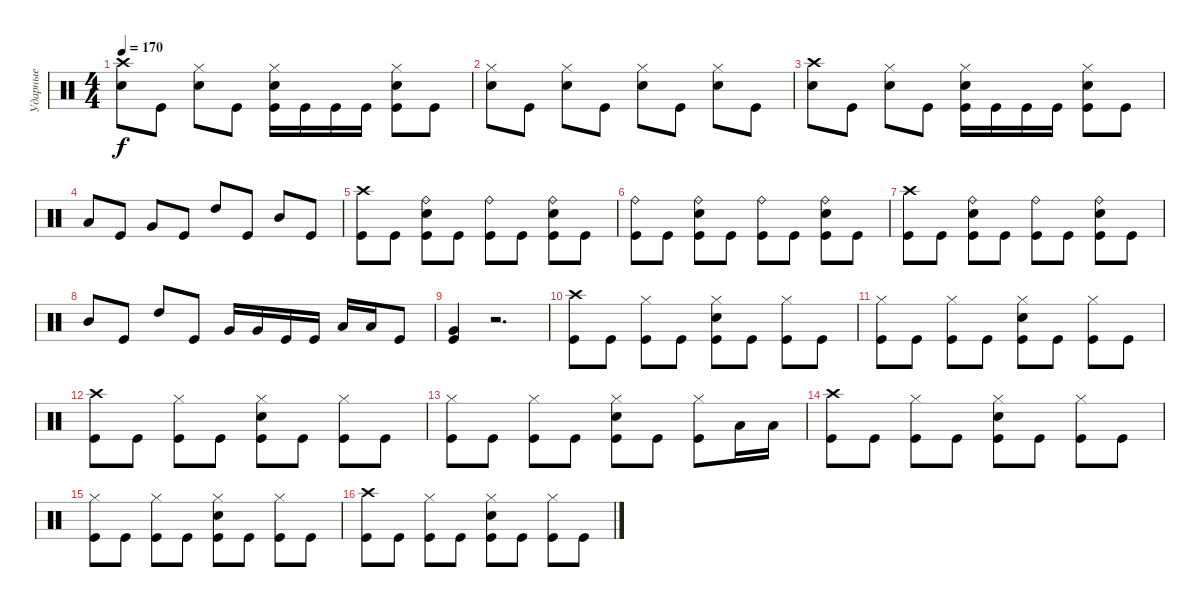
\track ("Ударные" "Ударные") {instrument percussion}
\staff {score}
\articulation defaults
\ts (4 4)
\tempo 170
\clef neutral
\ks c
("Crash high (hit)" "Electric Snare (hit)").8{dy f} "Kick (hit)".8 ("Hi-Hat (closed)" "Electric Snare (hit)").8 "Kick (hit)".8 ("Hi-Hat (closed)" "Electric Snare (hit)" "Kick (hit)").16 "Kick (hit)".16 "Kick (hit)".16 "Kick (hit)".16 ("Hi-Hat (closed)" "Electric Snare (hit)" "Kick (hit)").8 "Kick (hit)".8 |
("Hi-Hat (closed)" "Electric Snare (hit)").8 "Kick (hit)".8 ("Hi-Hat (closed)" "Electric Snare (hit)").8 "Kick (hit)".8 ("Hi-Hat (closed)" "Electric Snare (hit)").8 "Kick (hit)".8 ("Hi-Hat (closed)" "Electric Snare (hit)").8 "Kick (hit)".8 |
("Crash high (hit)" "Electric Snare (hit)").8 "Kick (hit)".8 ("Hi-Hat (closed)" "Electric Snare (hit)").8 "Kick (hit)".8 ("Hi-Hat (closed)" "Electric Snare (hit)" "Kick (hit)").16 "Kick (hit)".16 "Kick (hit)".16 "Kick (hit)".16 ("Hi-Hat (closed)" "Electric Snare (hit)" "Kick (hit)").8 "Kick (hit)".8 |
"Low Tom (hit)".8 "Kick (hit)".8 "Very Low Tom (hit)".8 "Kick (hit)".8 "High Tom (hit)".8 "Kick (hit)".8 "Mid Tom (hit)".8 "Kick (hit)".8 |
("Crash high (hit)" "Kick (hit)").8 "Kick (hit)".8 ("Ride (bell)" "Electric Snare (hit)" "Kick (hit)").8 "Kick (hit)".8 ("Ride (bell)" "Kick (hit)").8 "Kick (hit)".8 ("Ride (bell)" "Electric Snare (hit)" "Kick (hit)").8 "Kick (hit)".8 |
("Ride (bell)" "Kick (hit)").8 "Kick (hit)".8 ("Ride (bell)" "Electric Snare (hit)" "Kick (hit)").8 "Kick (hit)".8 ("Ride (bell)" "Kick (hit)").8 "Kick (hit)".8 ("Ride (bell)" "Electric Snare (hit)" "Kick (hit)").8 "Kick (hit)".8 |
("Crash high (hit)" "Kick (hit)").8 "Kick (hit)".8 ("Ride (bell)" "Electric Snare (hit)" "Kick (hit)").8 "Kick (hit)".8 ("Ride (bell)" "Kick (hit)").8 "Kick (hit)".8 ("Ride (bell)" "Electric Snare (hit)" "Kick (hit)").8 "Kick (hit)".8 |
"Mid Tom (hit)".8 "Kick (hit)".8 "High Tom (hit)".8 "Kick (hit)".8 "Very Low Tom (hit)".16 "Very Low Tom (hit)".16 "Kick (hit)".16 "Kick (hit)".16 "Low Tom (hit)".16 "Low Tom (hit)".16 "Kick (hit)".8 |
("Very Low Tom (hit)" "Kick (hit)").4 r.2{d} |
("Crash high (hit)" "Kick (hit)").8 "Kick (hit)".8 ("Hi-Hat (closed)" "Kick (hit)").8 "Kick (hit)".8 ("Hi-Hat (closed)" "Electric Snare (hit)" "Kick (hit)").8 "Kick (hit)".8 ("Hi-Hat (closed)" "Kick (hit)").8 "Kick (hit)".8 |
("Hi-Hat (closed)" "Kick (hit)").8 "Kick (hit)".8 ("Hi-Hat (closed)" "Kick (hit)").8 "Kick (hit)".8 ("Hi-Hat (closed)" "Electric Snare (hit)" "Kick (hit)").8 "Kick (hit)".8 ("Hi-Hat (closed)" "Kick (hit)").8 "Kick (hit)".8 |
("Crash high (hit)" "Kick (hit)").8 "Kick (hit)".8 ("Hi-Hat (closed)" "Kick (hit)").8 "Kick (hit)".8 ("Hi-Hat (closed)" "Electric Snare (hit)" "Kick (hit)").8 "Kick (hit)".8 ("Hi-Hat (closed)" "Kick (hit)").8 "Kick (hit)".8 |
("Hi-Hat (closed)" "Kick (hit)").8 "Kick (hit)".8 ("Hi-Hat (closed)" "Kick (hit)").8 "Kick (hit)".8 ("Hi-Hat (closed)" "Electric Snare (hit)" "Kick (hit)").8 "Kick (hit)".8 ("Hi-Hat (closed)" "Kick (hit)").8 "Low Tom (hit)".16 "Low Tom (hit)".16 |
("Crash high (hit)" "Kick (hit)").8 "Kick (hit)".8 ("Hi-Hat (closed)" "Kick (hit)").8 "Kick (hit)".8 ("Hi-Hat (closed)" "Electric Snare (hit)" "Kick (hit)").8 "Kick (hit)".8 ("Hi-Hat (closed)" "Kick (hit)").8 "Kick (hit)".8 |
("Hi-Hat (closed)" "Kick (hit)").8 "Kick (hit)".8 ("Hi-Hat (closed)" "Kick (hit)").8 "Kick (hit)".8 ("Hi-Hat (closed)" "Electric Snare (hit)" "Kick (hit)").8 "Kick (hit)".8 ("Hi-Hat (closed)" "Kick (hit)").8 "Kick (hit)".8 |
("Crash high (hit)" "Kick (hit)").8 "Kick (hit)".8 ("Hi-Hat (closed)" "Kick (hit)").8 "Kick (hit)".8 ("Hi-Hat (closed)" "Electric Snare (hit)" "Kick (hit)").8 "Kick (hit)".8 ("Hi-Hat (closed)" "Kick (hit)").8 "Kick (hit)".8
